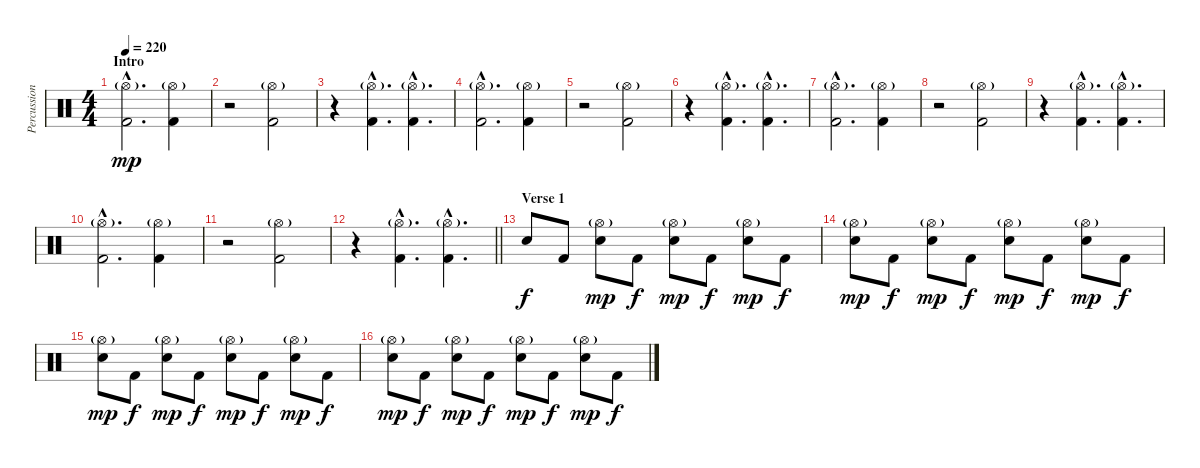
\track ("Percussions" "Percussion") {instrument percussion}
\staff {score}
\articulation defaults
\ts (4 4)
\section ("" "Intro")
\tempo 220
\clef neutral
\ks c
("Hi-Hat (open)"{g hac} "Kick (hit) 2"{hac}).2{d dy mp} ("Hi-Hat (open)"{g} "Kick (hit) 2").4 |
r.2 ("Hi-Hat (open)"{g} "Kick (hit) 2").2 |
r.4 ("Hi-Hat (open)"{g hac} "Kick (hit) 2"{hac}).4{d} ("Hi-Hat (open)"{g hac} "Kick (hit) 2"{hac}).4{d} |
("Hi-Hat (open)"{g hac} "Kick (hit) 2"{hac}).2{d} ("Hi-Hat (open)"{g} "Kick (hit) 2").4 |
r.2 ("Hi-Hat (open)"{g} "Kick (hit) 2").2 |
r.4 ("Hi-Hat (open)"{g hac} "Kick (hit) 2"{hac}).4{d} ("Hi-Hat (open)"{g hac} "Kick (hit) 2"{hac}).4{d} |
("Hi-Hat (open)"{g hac} "Kick (hit) 2"{hac}).2{d} ("Hi-Hat (open)"{g} "Kick (hit) 2").4 |
r.2 ("Hi-Hat (open)"{g} "Kick (hit) 2").2 |
r.4 ("Hi-Hat (open)"{g hac} "Kick (hit) 2"{hac}).4{d} ("Hi-Hat (open)"{g hac} "Kick (hit) 2"{hac}).4{d} |
("Hi-Hat (open)"{g hac} "Kick (hit) 2"{hac}).2{d} ("Hi-Hat (open)"{g} "Kick (hit) 2").4 |
r.2 ("Hi-Hat (open)"{g} "Kick (hit) 2").2 |
\barLineRight lightlight
r.4 ("Hi-Hat (open)"{g hac} "Kick (hit) 2"{hac}).4{d} ("Hi-Hat (open)"{g hac} "Kick (hit) 2"{hac}).4{d} |
\section ("" "Verse 1")
"Electric Snare (hit)".8{dy f} "Kick (hit) 2".8 ("Hi-Hat (open)"{g} "Electric Snare (hit)").8{dy mp} "Kick (hit) 2".8{dy f} ("Hi-Hat (open)"{g} "Electric Snare (hit)").8{dy mp} "Kick (hit) 2".8{dy f} ("Hi-Hat (open)"{g} "Electric Snare (hit)").8{dy mp} "Kick (hit) 2".8{dy f} |
("Hi-Hat (open)"{g} "Electric Snare (hit)").8{dy mp} "Kick (hit) 2".8{dy f} ("Hi-Hat (open)"{g} "Electric Snare (hit)").8{dy mp} "Kick (hit) 2".8{dy f} ("Hi-Hat (open)"{g} "Electric Snare (hit)").8{dy mp} "Kick (hit) 2".8{dy f} ("Hi-Hat (open)"{g} "Electric Snare (hit)").8{dy mp} "Kick (hit) 2".8{dy f} |
("Hi-Hat (open)"{g} "Electric Snare (hit)").8{dy mp} "Kick (hit) 2".8{dy f} ("Hi-Hat (open)"{g} "Electric Snare (hit)").8{dy mp} "Kick (hit) 2".8{dy f} ("Hi-Hat (open)"{g} "Electric Snare (hit)").8{dy mp} "Kick (hit) 2".8{dy f} ("Hi-Hat (open)"{g} "Electric Snare (hit)").8{dy mp} "Kick (hit) 2".8{dy f} |
("Hi-Hat (open)"{g} "Electric Snare (hit)").8{dy mp} "Kick (hit) 2".8{dy f} ("Hi-Hat (open)"{g} "Electric Snare (hit)").8{dy mp} "Kick (hit) 2".8{dy f} ("Hi-Hat (open)"{g} "Electric Snare (hit)").8{dy mp} "Kick (hit) 2".8{dy f} ("Hi-Hat (open)"{g} "Electric Snare (hit)").8{dy mp} "Kick (hit) 2".8{dy f}
